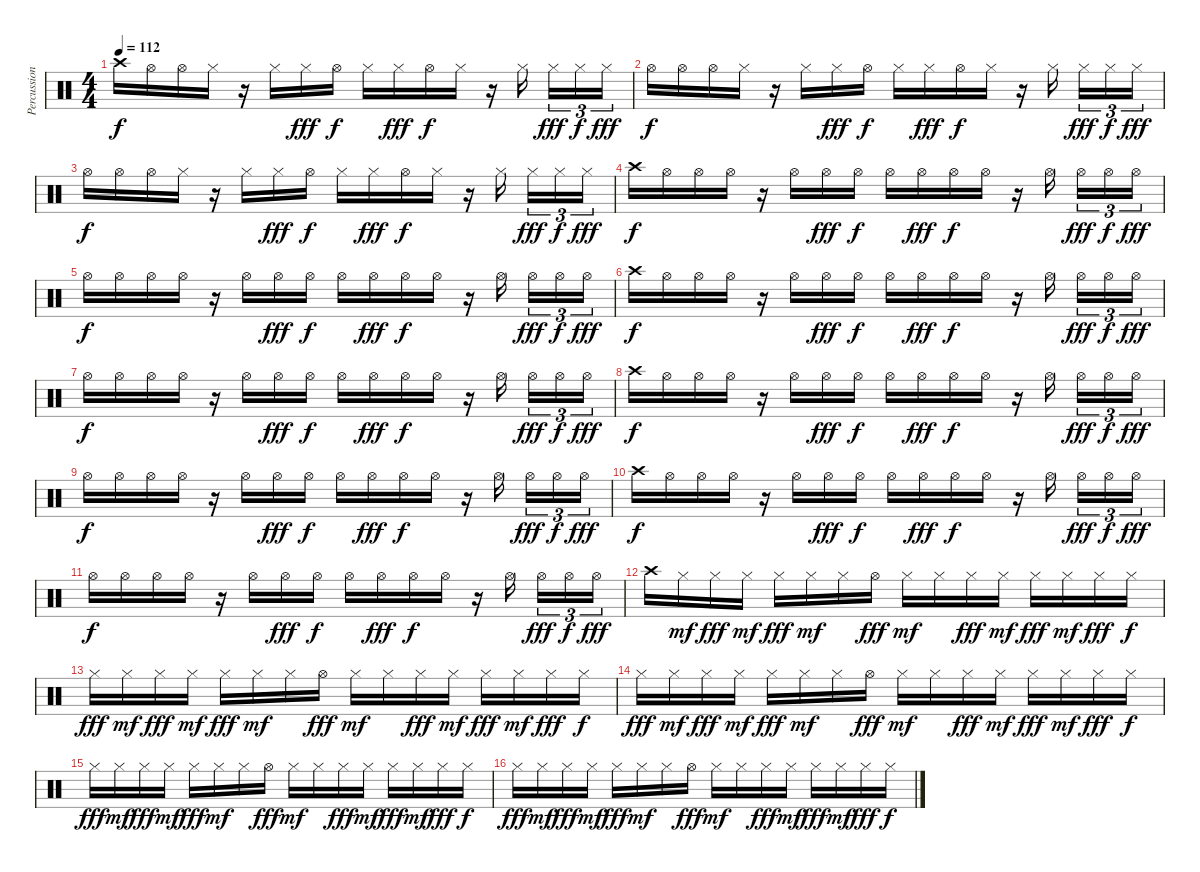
\track ("Percussion" "Percussion") {instrument percussion}
\staff {score}
\articulation defaults
\ts (4 4)
\tempo 112
\clef neutral
\ks c "Crash high (hit)".16{dy f} "Hi-Hat (open)".16 "Hi-Hat (open)".16 "Hi-Hat (closed)".16
r.16 "Hi-Hat (closed)".16 "Hi-Hat (closed)".16{dy fff} "Hi-Hat (open)".16{dy f} "Hi-Hat (closed)".16 "Hi-Hat (closed)".16{dy fff} "Hi-Hat (open)".16{dy f} "Hi-Hat (closed)".16 r.16 "Hi-Hat (closed)".16{beam splitsecondary} "Hi-Hat (closed)".16{tu (3 2) dy fff} "Hi-Hat (closed)".16{tu (3 2) dy f} "Hi-Hat (closed)".16{tu (3 2) dy fff} |
"Hi-Hat (open)".16{dy f} "Hi-Hat (open)".16 "Hi-Hat (open)".16 "Hi-Hat (closed)".16 r.16 "Hi-Hat (closed)".16 "Hi-Hat (closed)".16{dy fff} "Hi-Hat (open)".16{dy f} "Hi-Hat (closed)".16 "Hi-Hat (closed)".16{dy fff} "Hi-Hat (open)".16{dy f} "Hi-Hat (closed)".16 r.16 "Hi-Hat (closed)".16{beam splitsecondary} "Hi-Hat (closed)".16{tu (3 2) dy fff} "Hi-Hat (closed)".16{tu (3 2) dy f} "Hi-Hat (closed)".16{tu (3 2) dy fff} |
"Hi-Hat (open)".16{dy f} "Hi-Hat (open)".16 "Hi-Hat (open)".16 "Hi-Hat (closed)".16 r.16 "Hi-Hat (closed)".16 "Hi-Hat (closed)".16{dy fff} "Hi-Hat (open)".16{dy f} "Hi-Hat (closed)".16 "Hi-Hat (closed)".16{dy fff} "Hi-Hat (open)".16{dy f} "Hi-Hat (closed)".16 r.16 "Hi-Hat (closed)".16{beam splitsecondary} "Hi-Hat (closed)".16{tu (3 2) dy fff} "Hi-Hat (closed)".16{tu (3 2) dy f} "Hi-Hat (closed)".16{tu (3 2) dy fff} |
"Crash high (hit)".16{dy f} "Hi-Hat (open)".16 "Hi-Hat (open)".16 "Hi-Hat (open)".16 r.16 "Hi-Hat (open)".16 "Hi-Hat (open)".16{dy fff} "Hi-Hat (open)".16{dy f} "Hi-Hat (open)".16 "Hi-Hat (open)".16{dy fff} "Hi-Hat (open)".16{dy f} "Hi-Hat (open)".16 r.16 "Hi-Hat (open)".16{beam splitsecondary} "Hi-Hat (open)".16{tu (3 2) dy fff} "Hi-Hat (open)".16{tu (3 2) dy f} "Hi-Hat (open)".16{tu (3 2) dy fff} |
"Hi-Hat (open)".16{dy f} "Hi-Hat (open)".16 "Hi-Hat (open)".16 "Hi-Hat (open)".16 r.16 "Hi-Hat (open)".16 "Hi-Hat (open)".16{dy fff} "Hi-Hat (open)".16{dy f} "Hi-Hat (open)".16 "Hi-Hat (open)".16{dy fff} "Hi-Hat (open)".16{dy f} "Hi-Hat (open)".16 r.16 "Hi-Hat (open)".16{beam splitsecondary} "Hi-Hat (open)".16{tu (3 2) dy fff} "Hi-Hat (open)".16{tu (3 2) dy f} "Hi-Hat (open)".16{tu (3 2) dy fff} |
"Crash high (hit)".16{dy f} "Hi-Hat (open)".16 "Hi-Hat (open)".16 "Hi-Hat (open)".16 r.16 "Hi-Hat (open)".16 "Hi-Hat (open)".16{dy fff} "Hi-Hat (open)".16{dy f} "Hi-Hat (open)".16 "Hi-Hat (open)".16{dy fff} "Hi-Hat (open)".16{dy f} "Hi-Hat (open)".16 r.16 "Hi-Hat (open)".16{beam splitsecondary} "Hi-Hat (open)".16{tu (3 2) dy fff} "Hi-Hat (open)".16{tu (3 2) dy f} "Hi-Hat (open)".16{tu (3 2) dy fff} |
"Hi-Hat (open)".16{dy f} "Hi-Hat (open)".16 "Hi-Hat (open)".16 "Hi-Hat (open)".16 r.16 "Hi-Hat (open)".16 "Hi-Hat (open)".16{dy fff} "Hi-Hat (open)".16{dy f} "Hi-Hat (open)".16 "Hi-Hat (open)".16{dy fff} "Hi-Hat (open)".16{dy f} "Hi-Hat (open)".16 r.16 "Hi-Hat (open)".16{beam splitsecondary} "Hi-Hat (open)".16{tu (3 2) dy fff} "Hi-Hat (open)".16{tu (3 2) dy f} "Hi-Hat (open)".16{tu (3 2) dy fff} |
"Crash high (hit)".16{dy f} "Hi-Hat (open)".16 "Hi-Hat (open)".16 "Hi-Hat (open)".16 r.16 "Hi-Hat (open)".16 "Hi-Hat (open)".16{dy fff} "Hi-Hat (open)".16{dy f} "Hi-Hat (open)".16 "Hi-Hat (open)".16{dy fff} "Hi-Hat (open)".16{dy f} "Hi-Hat (open)".16 r.16 "Hi-Hat (open)".16{beam splitsecondary} "Hi-Hat (open)".16{tu (3 2) dy fff} "Hi-Hat (open)".16{tu (3 2) dy f} "Hi-Hat (open)".16{tu (3 2) dy fff} |
"Hi-Hat (open)".16{dy f} "Hi-Hat (open)".16 "Hi-Hat (open)".16 "Hi-Hat (open)".16 r.16 "Hi-Hat (open)".16 "Hi-Hat (open)".16{dy fff} "Hi-Hat (open)".16{dy f} "Hi-Hat (open)".16 "Hi-Hat (open)".16{dy fff} "Hi-Hat (open)".16{dy f} "Hi-Hat (open)".16 r.16 "Hi-Hat (open)".16{beam splitsecondary} "Hi-Hat (open)".16{tu (3 2) dy fff} "Hi-Hat (open)".16{tu (3 2) dy f} "Hi-Hat (open)".16{tu (3 2) dy fff} |
"Crash high (hit)".16{dy f} "Hi-Hat (open)".16 "Hi-Hat (open)".16 "Hi-Hat (open)".16 r.16 "Hi-Hat (open)".16 "Hi-Hat (open)".16{dy fff} "Hi-Hat (open)".16{dy f} "Hi-Hat (open)".16 "Hi-Hat (open)".16{dy fff} "Hi-Hat (open)".16{dy f} "Hi-Hat (open)".16 r.16 "Hi-Hat (open)".16{beam splitsecondary} "Hi-Hat (open)".16{tu (3 2) dy fff} "Hi-Hat (open)".16{tu (3 2) dy f} "Hi-Hat (open)".16{tu (3 2) dy fff} |
"Hi-Hat (open)".16{dy f} "Hi-Hat (open)".16 "Hi-Hat (open)".16 "Hi-Hat (open)".16 r.16 "Hi-Hat (open)".16 "Hi-Hat (open)".16{dy fff} "Hi-Hat (open)".16{dy f} "Hi-Hat (open)".16 "Hi-Hat (open)".16{dy fff} "Hi-Hat (open)".16{dy f} "Hi-Hat (open)".16 r.16 "Hi-Hat (open)".16{beam splitsecondary} "Hi-Hat (open)".16{tu (3 2) dy fff} "Hi-Hat (open)".16{tu (3 2) dy f} "Hi-Hat (open)".16{tu (3 2) dy fff} |
"Crash high (hit)".16 "Hi-Hat (closed)".16{dy mf} "Hi-Hat (closed)".16{dy fff} "Hi-Hat (closed)".16{dy mf} "Hi-Hat (closed)".16{dy fff} "Hi-Hat (closed)".16{dy mf} "Hi-Hat (closed)".16 "Hi-Hat (open)".16{dy fff} "Hi-Hat (closed)".16{dy mf} "Hi-Hat (closed)".16 "Hi-Hat (closed)".16{dy fff} "Hi-Hat (closed)".16{dy mf} "Hi-Hat (closed)".16{dy fff} "Hi-Hat (closed)".16{dy mf} "Hi-Hat (closed)".16{dy fff} "Hi-Hat (closed)".16{dy f} |
"Hi-Hat (closed)".16{dy fff} "Hi-Hat (closed)".16{dy mf} "Hi-Hat (closed)".16{dy fff} "Hi-Hat (closed)".16{dy mf} "Hi-Hat (closed)".16{dy fff} "Hi-Hat (closed)".16{dy mf} "Hi-Hat (closed)".16 "Hi-Hat (open)".16{dy fff} "Hi-Hat (closed)".16{dy mf} "Hi-Hat (closed)".16 "Hi-Hat (closed)".16{dy fff} "Hi-Hat (closed)".16{dy mf} "Hi-Hat (closed)".16{dy fff} "Hi-Hat (closed)".16{dy mf} "Hi-Hat (closed)".16{dy fff} "Hi-Hat (closed)".16{dy f} |
"Hi-Hat (closed)".16{dy fff} "Hi-Hat (closed)".16{dy mf} "Hi-Hat (closed)".16{dy fff} "Hi-Hat (closed)".16{dy mf} "Hi-Hat (closed)".16{dy fff} "Hi-Hat (closed)".16{dy mf} "Hi-Hat (closed)".16 "Hi-Hat (open)".16{dy fff} "Hi-Hat (closed)".16{dy mf} "Hi-Hat (closed)".16 "Hi-Hat (closed)".16{dy fff} "Hi-Hat (closed)".16{dy mf} "Hi-Hat (closed)".16{dy fff} "Hi-Hat (closed)".16{dy mf} "Hi-Hat (closed)".16{dy fff} "Hi-Hat (closed)".16{dy f} |
"Hi-Hat (closed)".16{dy fff} "Hi-Hat (closed)".16{dy mf} "Hi-Hat (closed)".16{dy fff} "Hi-Hat (closed)".16{dy mf} "Hi-Hat (closed)".16{dy fff} "Hi-Hat (closed)".16{dy mf} "Hi-Hat (closed)".16 "Hi-Hat (open)".16{dy fff} "Hi-Hat (closed)".16{dy mf} "Hi-Hat (closed)".16 "Hi-Hat (closed)".16{dy fff} "Hi-Hat (closed)".16{dy mf} "Hi-Hat (closed)".16{dy fff} "Hi-Hat (closed)".16{dy mf} "Hi-Hat (closed)".16{dy fff} "Hi-Hat (closed)".16{dy f} |
"Hi-Hat (closed)".16{dy fff} "Hi-Hat (closed)".16{dy mf} "Hi-Hat (closed)".16{dy fff} "Hi-Hat (closed)".16{dy mf} "Hi-Hat (closed)".16{dy fff} "Hi-Hat (closed)".16{dy mf} "Hi-Hat (closed)".16 "Hi-Hat (open)".16{dy fff} "Hi-Hat (closed)".16{dy mf} "Hi-Hat (closed)".16 "Hi-Hat (closed)".16{dy fff} "Hi-Hat (closed)".16{dy mf} "Hi-Hat (closed)".16{dy fff} "Hi-Hat (closed)".16{dy mf} "Hi-Hat (closed)".16{dy fff} "Hi-Hat (closed)".16{dy f}
